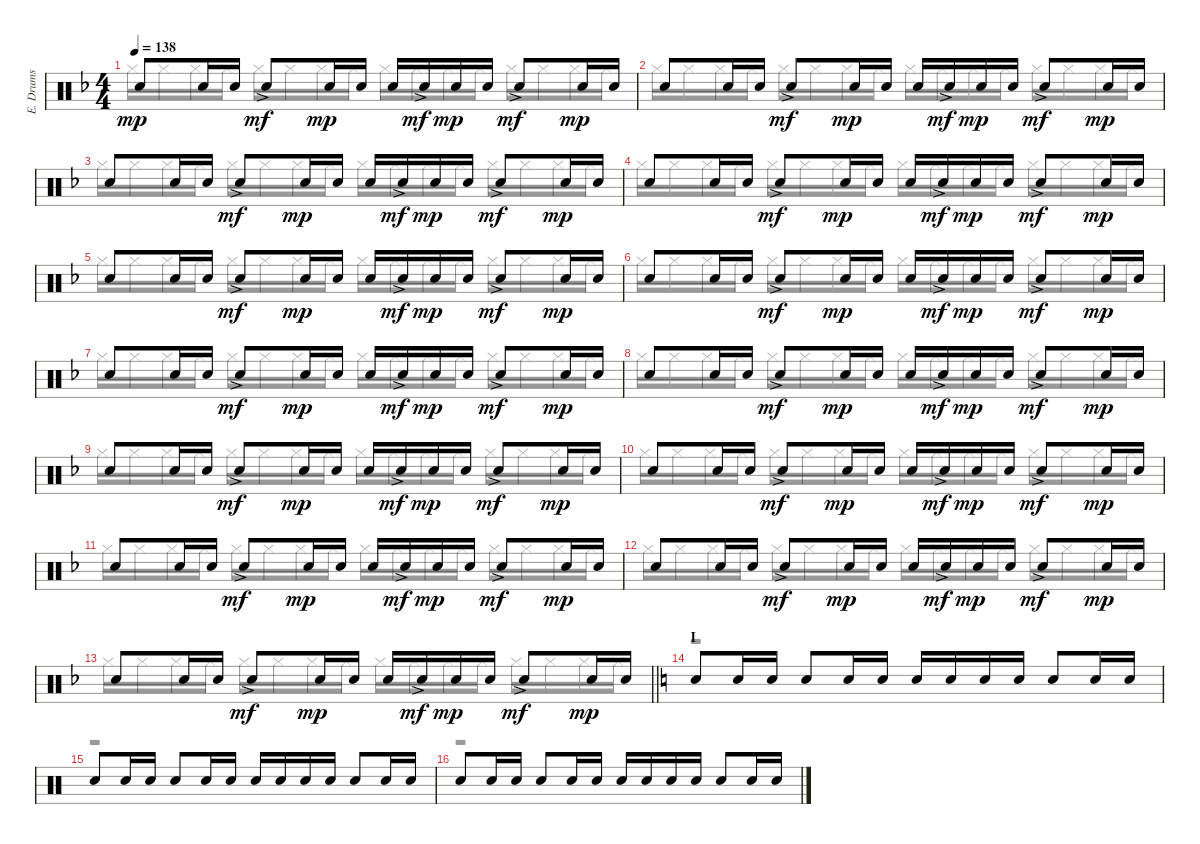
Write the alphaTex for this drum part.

\track ("E. Drums" "E. Drums") {instrument percussion}
\staff {score}
\articulation defaults
\voice
\ts (4 4)
\tempo 138
\clef neutral
\ks f "Electric Snare (hit)".8{dy mp} "Electric Snare (hit)".16 "Electric Snare (hit)".16 "Electric Snare (hit)"{ac}.8{dy mf} "Electric Snare (hit)".16{dy mp} "Electric Snare (hit)".16 "Electric Snare (hit)".16 "Electric Snare (hit)"{ac}.16{dy mf} "Electric Snare (hit)".16{dy mp} "Electric Snare (hit)".16 "Electric Snare (hit)"{ac}.8{dy mf} "Electric Snare (hit)".16{dy mp} "Electric Snare (hit)".16
|
"Electric Snare (hit)".8 "Electric Snare (hit)".16 "Electric Snare (hit)".16 "Electric Snare (hit)"{ac}.8{dy mf} "Electric Snare (hit)".16{dy mp} "Electric Snare (hit)".16 "Electric Snare (hit)".16 "Electric Snare (hit)"{ac}.16{dy mf} "Electric Snare (hit)".16{dy mp} "Electric Snare (hit)".16 "Electric Snare (hit)"{ac}.8{dy mf} "Electric Snare (hit)".16{dy mp} "Electric Snare (hit)".16 |
"Electric Snare (hit)".8 "Electric Snare (hit)".16 "Electric Snare (hit)".16 "Electric Snare (hit)"{ac}.8{dy mf} "Electric Snare (hit)".16{dy mp} "Electric Snare (hit)".16 "Electric Snare (hit)".16 "Electric Snare (hit)"{ac}.16{dy mf} "Electric Snare (hit)".16{dy mp} "Electric Snare (hit)".16 "Electric Snare (hit)"{ac}.8{dy mf} "Electric Snare (hit)".16{dy mp} "Electric Snare (hit)".16 |
"Electric Snare (hit)".8 "Electric Snare (hit)".16 "Electric Snare (hit)".16 "Electric Snare (hit)"{ac}.8{dy mf} "Electric Snare (hit)".16{dy mp} "Electric Snare (hit)".16 "Electric Snare (hit)".16 "Electric Snare (hit)"{ac}.16{dy mf} "Electric Snare (hit)".16{dy mp} "Electric Snare (hit)".16 "Electric Snare (hit)"{ac}.8{dy mf} "Electric Snare (hit)".16{dy mp} "Electric Snare (hit)".16 |
"Electric Snare (hit)".8 "Electric Snare (hit)".16 "Electric Snare (hit)".16 "Electric Snare (hit)"{ac}.8{dy mf} "Electric Snare (hit)".16{dy mp} "Electric Snare (hit)".16 "Electric Snare (hit)".16 "Electric Snare (hit)"{ac}.16{dy mf} "Electric Snare (hit)".16{dy mp} "Electric Snare (hit)".16 "Electric Snare (hit)"{ac}.8{dy mf} "Electric Snare (hit)".16{dy mp} "Electric Snare (hit)".16 |
"Electric Snare (hit)".8 "Electric Snare (hit)".16 "Electric Snare (hit)".16 "Electric Snare (hit)"{ac}.8{dy mf} "Electric Snare (hit)".16{dy mp} "Electric Snare (hit)".16 "Electric Snare (hit)".16 "Electric Snare (hit)"{ac}.16{dy mf} "Electric Snare (hit)".16{dy mp} "Electric Snare (hit)".16 "Electric Snare (hit)"{ac}.8{dy mf} "Electric Snare (hit)".16{dy mp} "Electric Snare (hit)".16 |
"Electric Snare (hit)".8 "Electric Snare (hit)".16 "Electric Snare (hit)".16 "Electric Snare (hit)"{ac}.8{dy mf} "Electric Snare (hit)".16{dy mp} "Electric Snare (hit)".16 "Electric Snare (hit)".16 "Electric Snare (hit)"{ac}.16{dy mf} "Electric Snare (hit)".16{dy mp} "Electric Snare (hit)".16 "Electric Snare (hit)"{ac}.8{dy mf} "Electric Snare (hit)".16{dy mp} "Electric Snare (hit)".16 |
"Electric Snare (hit)".8 "Electric Snare (hit)".16 "Electric Snare (hit)".16 "Electric Snare (hit)"{ac}.8{dy mf} "Electric Snare (hit)".16{dy mp} "Electric Snare (hit)".16 "Electric Snare (hit)".16 "Electric Snare (hit)"{ac}.16{dy mf} "Electric Snare (hit)".16{dy mp} "Electric Snare (hit)".16 "Electric Snare (hit)"{ac}.8{dy mf} "Electric Snare (hit)".16{dy mp} "Electric Snare (hit)".16 |
"Electric Snare (hit)".8 "Electric Snare (hit)".16 "Electric Snare (hit)".16 "Electric Snare (hit)"{ac}.8{dy mf} "Electric Snare (hit)".16{dy mp} "Electric Snare (hit)".16 "Electric Snare (hit)".16 "Electric Snare (hit)"{ac}.16{dy mf} "Electric Snare (hit)".16{dy mp} "Electric Snare (hit)".16 "Electric Snare (hit)"{ac}.8{dy mf} "Electric Snare (hit)".16{dy mp} "Electric Snare (hit)".16 |
"Electric Snare (hit)".8 "Electric Snare (hit)".16 "Electric Snare (hit)".16 "Electric Snare (hit)"{ac}.8{dy mf} "Electric Snare (hit)".16{dy mp} "Electric Snare (hit)".16 "Electric Snare (hit)".16 "Electric Snare (hit)"{ac}.16{dy mf} "Electric Snare (hit)".16{dy mp} "Electric Snare (hit)".16 "Electric Snare (hit)"{ac}.8{dy mf} "Electric Snare (hit)".16{dy mp} "Electric Snare (hit)".16 |
"Electric Snare (hit)".8 "Electric Snare (hit)".16 "Electric Snare (hit)".16 "Electric Snare (hit)"{ac}.8{dy mf} "Electric Snare (hit)".16{dy mp} "Electric Snare (hit)".16 "Electric Snare (hit)".16 "Electric Snare (hit)"{ac}.16{dy mf} "Electric Snare (hit)".16{dy mp} "Electric Snare (hit)".16 "Electric Snare (hit)"{ac}.8{dy mf} "Electric Snare (hit)".16{dy mp} "Electric Snare (hit)".16 |
"Electric Snare (hit)".8 "Electric Snare (hit)".16 "Electric Snare (hit)".16 "Electric Snare (hit)"{ac}.8{dy mf} "Electric Snare (hit)".16{dy mp} "Electric Snare (hit)".16 "Electric Snare (hit)".16 "Electric Snare (hit)"{ac}.16{dy mf} "Electric Snare (hit)".16{dy mp} "Electric Snare (hit)".16 "Electric Snare (hit)"{ac}.8{dy mf} "Electric Snare (hit)".16{dy mp} "Electric Snare (hit)".16 |
\barLineRight lightlight "Electric Snare (hit)".8 "Electric Snare (hit)".16 "Electric Snare (hit)".16 "Electric Snare (hit)"{ac}.8{dy mf} "Electric Snare (hit)".16{dy mp} "Electric Snare (hit)".16 "Electric Snare (hit)".16 "Electric Snare (hit)"{ac}.16{dy mf} "Electric Snare (hit)".16{dy mp} "Electric Snare (hit)".16 "Electric Snare (hit)"{ac}.8{dy mf} "Electric Snare (hit)".16{dy mp} "Electric Snare (hit)".16
|
\section ("" "I")
\ks c "Electric Snare (hit)".8 "Electric Snare (hit)".16 "Electric Snare (hit)".16 "Electric Snare (hit)".8 "Electric Snare (hit)".16 "Electric Snare (hit)".16 "Electric Snare (hit)".16 "Electric Snare (hit)".16 "Electric Snare (hit)".16 "Electric Snare (hit)".16 "Electric Snare (hit)".8 "Electric Snare (hit)".16 "Electric Snare (hit)".16
|
"Electric Snare (hit)".8 "Electric Snare (hit)".16 "Electric Snare (hit)".16 "Electric Snare (hit)".8 "Electric Snare (hit)".16 "Electric Snare (hit)".16 "Electric Snare (hit)".16 "Electric Snare (hit)".16 "Electric Snare (hit)".16 "Electric Snare (hit)".16 "Electric Snare (hit)".8 "Electric Snare (hit)".16 "Electric Snare (hit)".16 |
"Electric Snare (hit)".8 "Electric Snare (hit)".16 "Electric Snare (hit)".16 "Electric Snare (hit)".8 "Electric Snare (hit)".16 "Electric Snare (hit)".16 "Electric Snare (hit)".16 "Electric Snare (hit)".16 "Electric Snare (hit)".16 "Electric Snare (hit)".16 "Electric Snare (hit)".8 "Electric Snare (hit)".16 "Electric Snare (hit)".16
\voice
\clef neutral
\ottava regular
\simile none
\ks f "Hi-Hat (closed)".16{dy mp} "Hi-Hat (closed)".16 "Hi-Hat (closed)".16 "Hi-Hat (closed)".16 "Hi-Hat (closed)".16 "Hi-Hat (closed)".16 "Hi-Hat (closed)".16 "Hi-Hat (closed)".16 "Hi-Hat (closed)".16 "Hi-Hat (closed)".16 "Hi-Hat (closed)".16 "Hi-Hat (closed)".16 "Hi-Hat (closed)".16 "Hi-Hat (closed)".16 "Hi-Hat (closed)".16 "Hi-Hat (closed)".16
|
"Hi-Hat (closed)".16 "Hi-Hat (closed)".16 "Hi-Hat (closed)".16 "Hi-Hat (closed)".16 "Hi-Hat (closed)".16 "Hi-Hat (closed)".16 "Hi-Hat (closed)".16 "Hi-Hat (closed)".16 "Hi-Hat (closed)".16 "Hi-Hat (closed)".16 "Hi-Hat (closed)".16 "Hi-Hat (closed)".16 "Hi-Hat (closed)".16 "Hi-Hat (closed)".16 "Hi-Hat (closed)".16 "Hi-Hat (closed)".16 |
"Hi-Hat (closed)".16 "Hi-Hat (closed)".16 "Hi-Hat (closed)".16 "Hi-Hat (closed)".16 "Hi-Hat (closed)".16 "Hi-Hat (closed)".16 "Hi-Hat (closed)".16 "Hi-Hat (closed)".16 "Hi-Hat (closed)".16 "Hi-Hat (closed)".16 "Hi-Hat (closed)".16 "Hi-Hat (closed)".16 "Hi-Hat (closed)".16 "Hi-Hat (closed)".16 "Hi-Hat (closed)".16 "Hi-Hat (closed)".16 |
"Hi-Hat (closed)".16 "Hi-Hat (closed)".16 "Hi-Hat (closed)".16 "Hi-Hat (closed)".16 "Hi-Hat (closed)".16 "Hi-Hat (closed)".16 "Hi-Hat (closed)".16 "Hi-Hat (closed)".16 "Hi-Hat (closed)".16 "Hi-Hat (closed)".16 "Hi-Hat (closed)".16 "Hi-Hat (closed)".16 "Hi-Hat (closed)".16 "Hi-Hat (closed)".16 "Hi-Hat (closed)".16 "Hi-Hat (closed)".16 |
"Hi-Hat (closed)".16 "Hi-Hat (closed)".16 "Hi-Hat (closed)".16 "Hi-Hat (closed)".16 "Hi-Hat (closed)".16 "Hi-Hat (closed)".16 "Hi-Hat (closed)".16 "Hi-Hat (closed)".16 "Hi-Hat (closed)".16 "Hi-Hat (closed)".16 "Hi-Hat (closed)".16 "Hi-Hat (closed)".16 "Hi-Hat (closed)".16 "Hi-Hat (closed)".16 "Hi-Hat (closed)".16 "Hi-Hat (closed)".16 |
"Hi-Hat (closed)".16 "Hi-Hat (closed)".16 "Hi-Hat (closed)".16 "Hi-Hat (closed)".16 "Hi-Hat (closed)".16 "Hi-Hat (closed)".16 "Hi-Hat (closed)".16 "Hi-Hat (closed)".16 "Hi-Hat (closed)".16 "Hi-Hat (closed)".16 "Hi-Hat (closed)".16 "Hi-Hat (closed)".16 "Hi-Hat (closed)".16 "Hi-Hat (closed)".16 "Hi-Hat (closed)".16 "Hi-Hat (closed)".16 |
"Hi-Hat (closed)".16 "Hi-Hat (closed)".16 "Hi-Hat (closed)".16 "Hi-Hat (closed)".16 "Hi-Hat (closed)".16 "Hi-Hat (closed)".16 "Hi-Hat (closed)".16 "Hi-Hat (closed)".16 "Hi-Hat (closed)".16 "Hi-Hat (closed)".16 "Hi-Hat (closed)".16 "Hi-Hat (closed)".16 "Hi-Hat (closed)".16 "Hi-Hat (closed)".16 "Hi-Hat (closed)".16 "Hi-Hat (closed)".16 |
"Hi-Hat (closed)".16 "Hi-Hat (closed)".16 "Hi-Hat (closed)".16 "Hi-Hat (closed)".16 "Hi-Hat (closed)".16 "Hi-Hat (closed)".16 "Hi-Hat (closed)".16 "Hi-Hat (closed)".16 "Hi-Hat (closed)".16 "Hi-Hat (closed)".16 "Hi-Hat (closed)".16 "Hi-Hat (closed)".16 "Hi-Hat (closed)".16 "Hi-Hat (closed)".16 "Hi-Hat (closed)".16 "Hi-Hat (closed)".16 |
"Hi-Hat (closed)".16 "Hi-Hat (closed)".16 "Hi-Hat (closed)".16 "Hi-Hat (closed)".16 "Hi-Hat (closed)".16 "Hi-Hat (closed)".16 "Hi-Hat (closed)".16 "Hi-Hat (closed)".16 "Hi-Hat (closed)".16 "Hi-Hat (closed)".16 "Hi-Hat (closed)".16 "Hi-Hat (closed)".16 "Hi-Hat (closed)".16 "Hi-Hat (closed)".16 "Hi-Hat (closed)".16 "Hi-Hat (closed)".16 |
"Hi-Hat (closed)".16 "Hi-Hat (closed)".16 "Hi-Hat (closed)".16 "Hi-Hat (closed)".16 "Hi-Hat (closed)".16 "Hi-Hat (closed)".16 "Hi-Hat (closed)".16 "Hi-Hat (closed)".16 "Hi-Hat (closed)".16 "Hi-Hat (closed)".16 "Hi-Hat (closed)".16 "Hi-Hat (closed)".16 "Hi-Hat (closed)".16 "Hi-Hat (closed)".16 "Hi-Hat (closed)".16 "Hi-Hat (closed)".16 |
"Hi-Hat (closed)".16 "Hi-Hat (closed)".16 "Hi-Hat (closed)".16 "Hi-Hat (closed)".16 "Hi-Hat (closed)".16 "Hi-Hat (closed)".16 "Hi-Hat (closed)".16 "Hi-Hat (closed)".16 "Hi-Hat (closed)".16 "Hi-Hat (closed)".16 "Hi-Hat (closed)".16 "Hi-Hat (closed)".16 "Hi-Hat (closed)".16 "Hi-Hat (closed)".16 "Hi-Hat (closed)".16 "Hi-Hat (closed)".16 |
"Hi-Hat (closed)".16 "Hi-Hat (closed)".16 "Hi-Hat (closed)".16 "Hi-Hat (closed)".16 "Hi-Hat (closed)".16 "Hi-Hat (closed)".16 "Hi-Hat (closed)".16 "Hi-Hat (closed)".16 "Hi-Hat (closed)".16 "Hi-Hat (closed)".16 "Hi-Hat (closed)".16 "Hi-Hat (closed)".16 "Hi-Hat (closed)".16 "Hi-Hat (closed)".16 "Hi-Hat (closed)".16 "Hi-Hat (closed)".16 |
\barLineRight lightlight "Hi-Hat (closed)".16 "Hi-Hat (closed)".16 "Hi-Hat (closed)".16 "Hi-Hat (closed)".16 "Hi-Hat (closed)".16 "Hi-Hat (closed)".16 "Hi-Hat (closed)".16 "Hi-Hat (closed)".16 "Hi-Hat (closed)".16 "Hi-Hat (closed)".16 "Hi-Hat (closed)".16 "Hi-Hat (closed)".16 "Hi-Hat (closed)".16 "Hi-Hat (closed)".16 "Hi-Hat (closed)".16 "Hi-Hat (closed)".16
|
\ks c
r.1 |
r.1 |
r.1
